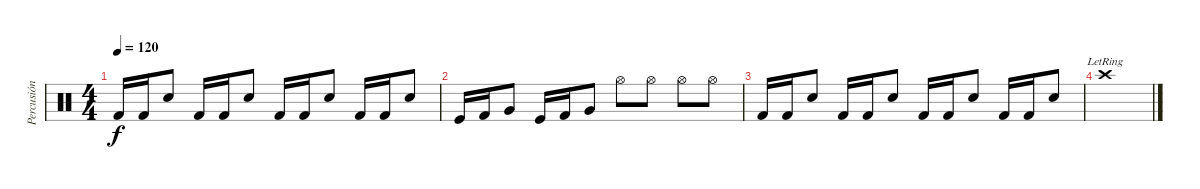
\track ("Percusión" "Percusión") {instrument percussion}
\staff {score}
\articulation defaults
\ts (4 4)
\tempo 120
\clef neutral
\ks c "Kick (hit) 2".16{dy f} "Kick (hit) 2".16 "Snare (hit) 2".8 "Kick (hit) 2".16 "Kick (hit) 2".16 "Snare (hit) 2".8 "Kick (hit) 2".16 "Kick (hit) 2".16 "Snare (hit) 2".8 "Kick (hit) 2".16 "Kick (hit) 2".16 "Snare (hit) 2".8
|
"Kick (hit)".16 "Kick (hit) 2".16 "Very Low Tom (hit)".8 "Kick (hit)".16 "Kick (hit) 2".16 "Very Low Tom (hit)".8 "Hi-Hat (open)".8 "Hi-Hat (open)".8 "Hi-Hat (open)".8 "Hi-Hat (open)".8 |
"Kick (hit) 2".16 "Kick (hit) 2".16 "Snare (hit) 2".8 "Kick (hit) 2".16 "Kick (hit) 2".16 "Snare (hit) 2".8 "Kick (hit) 2".16 "Kick (hit) 2".16 "Snare (hit) 2".8 "Kick (hit) 2".16 "Kick (hit) 2".16 "Snare (hit) 2".8 |
"Crash high (hit)"{lr}.1
